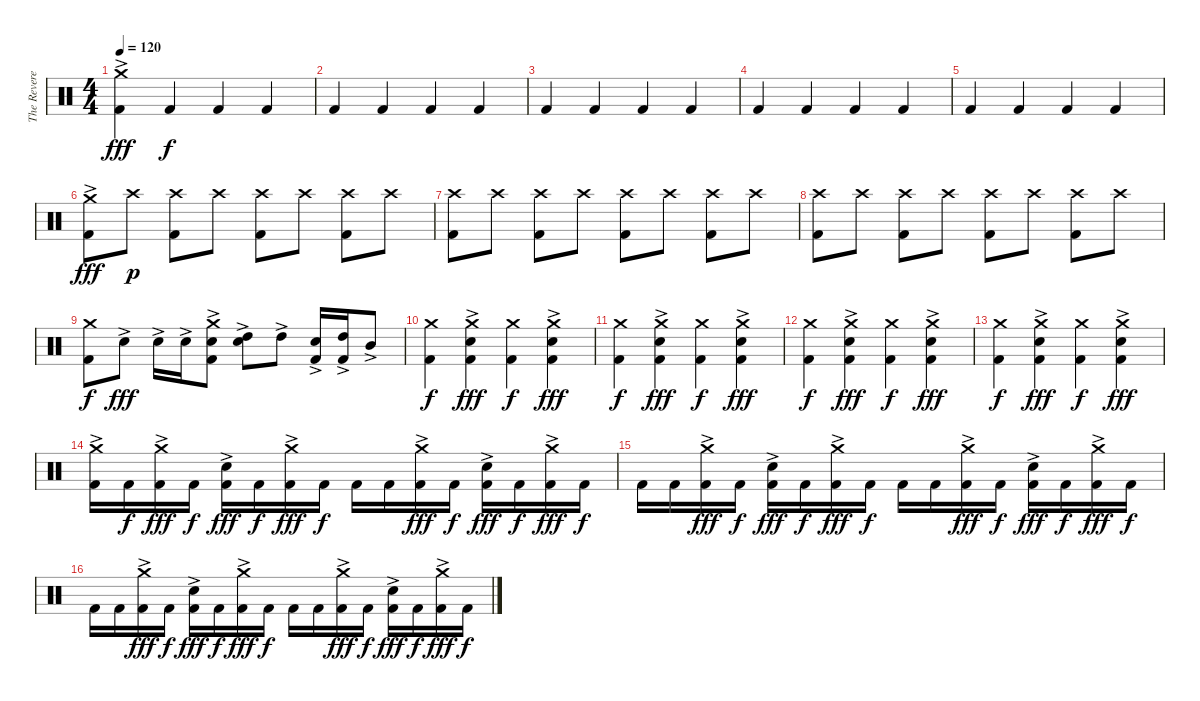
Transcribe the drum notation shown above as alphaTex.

\track ("The Reverend" "The Revere") {instrument percussion}
\staff {score}
\articulation defaults
\ts (4 4)
\tempo 120
\clef neutral
\ks c
("Crash medium (hit)"{ac} "Kick (hit) 2").4{dy fff} "Kick (hit) 2".4{dy f} "Kick (hit) 2".4 "Kick (hit) 2".4 |
"Kick (hit) 2".4 "Kick (hit) 2".4 "Kick (hit) 2".4 "Kick (hit) 2".4 |
"Kick (hit) 2".4 "Kick (hit) 2".4 "Kick (hit) 2".4 "Kick (hit) 2".4 |
"Kick (hit) 2".4 "Kick (hit) 2".4 "Kick (hit) 2".4 "Kick (hit) 2".4 |
"Kick (hit) 2".4 "Kick (hit) 2".4 "Kick (hit) 2".4 "Kick (hit) 2".4 |
("Crash medium (hit)"{ac} "Kick (hit) 2").8{dy fff} "Crash high (hit)".8{dy p} ("Crash high (hit)" "Kick (hit) 2").8 "Crash high (hit)".8 ("Crash high (hit)" "Kick (hit) 2").8 "Crash high (hit)".8 ("Crash high (hit)" "Kick (hit) 2").8 "Crash high (hit)".8 |
("Crash high (hit)" "Kick (hit) 2").8 "Crash high (hit)".8 ("Crash high (hit)" "Kick (hit) 2").8 "Crash high (hit)".8 ("Crash high (hit)" "Kick (hit) 2").8 "Crash high (hit)".8 ("Crash high (hit)" "Kick (hit) 2").8 "Crash high (hit)".8 |
("Crash high (hit)" "Kick (hit) 2").8 "Crash high (hit)".8 ("Crash high (hit)" "Kick (hit) 2").8 "Crash high (hit)".8 ("Crash high (hit)" "Kick (hit) 2").8 "Crash high (hit)".8 ("Crash high (hit)" "Kick (hit) 2").8 "Crash high (hit)".8 |
("Crash medium (hit)" "Kick (hit) 2").8{dy f} "Electric Snare (hit)"{ac}.8{dy fff} "Electric Snare (hit)"{ac}.16 "Electric Snare (hit)"{ac}.16 ("Crash medium (hit)" "Electric Snare (hit)"{ac} "Kick (hit) 2").8 ("Electric Snare (hit)"{ac} "High Tom (hit)"{ac}).8 "High Tom (hit)"{ac}.8 ("Electric Snare (hit)"{ac} "Kick (hit) 2").16 ("High Tom (hit)"{ac} "Kick (hit) 2").16 "Mid Tom (hit)"{ac}.8 |
("Crash medium (hit)" "Kick (hit) 2").4{dy f} ("Crash medium (hit)" "Electric Snare (hit)"{ac} "Kick (hit) 2").4{dy fff} ("Crash medium (hit)" "Kick (hit) 2").4{dy f} ("Crash medium (hit)" "Electric Snare (hit)"{ac} "Kick (hit) 2").4{dy fff} |
("Crash medium (hit)" "Kick (hit) 2").4{dy f} ("Crash medium (hit)" "Electric Snare (hit)"{ac} "Kick (hit) 2").4{dy fff} ("Crash medium (hit)" "Kick (hit) 2").4{dy f} ("Crash medium (hit)" "Electric Snare (hit)"{ac} "Kick (hit) 2").4{dy fff} |
("Crash medium (hit)" "Kick (hit) 2").4{dy f} ("Crash medium (hit)" "Electric Snare (hit)"{ac} "Kick (hit) 2").4{dy fff} ("Crash medium (hit)" "Kick (hit) 2").4{dy f} ("Crash medium (hit)" "Electric Snare (hit)"{ac} "Kick (hit) 2").4{dy fff} |
("Crash medium (hit)" "Kick (hit) 2").4{dy f} ("Crash medium (hit)" "Electric Snare (hit)"{ac} "Kick (hit) 2").4{dy fff} ("Crash medium (hit)" "Kick (hit) 2").4{dy f} ("Crash medium (hit)" "Electric Snare (hit)"{ac} "Kick (hit) 2").4{dy fff} |
("Crash medium (hit)"{ac} "Kick (hit) 2").16 "Kick (hit) 2".16{dy f} ("Crash medium (hit)"{ac} "Kick (hit) 2").16{dy fff} "Kick (hit) 2".16{dy f} ("Electric Snare (hit)"{ac} "Kick (hit) 2").16{dy fff} "Kick (hit) 2".16{dy f} ("Crash medium (hit)"{ac} "Kick (hit) 2").16{dy fff} "Kick (hit) 2".16{dy f} "Kick (hit) 2".16 "Kick (hit) 2".16 ("Crash medium (hit)"{ac} "Kick (hit) 2").16{dy fff} "Kick (hit) 2".16{dy f} ("Electric Snare (hit)"{ac} "Kick (hit) 2").16{dy fff} "Kick (hit) 2".16{dy f} ("Crash medium (hit)"{ac} "Kick (hit) 2").16{dy fff} "Kick (hit) 2".16{dy f} |
"Kick (hit) 2".16 "Kick (hit) 2".16 ("Crash medium (hit)"{ac} "Kick (hit) 2").16{dy fff} "Kick (hit) 2".16{dy f} ("Electric Snare (hit)"{ac} "Kick (hit) 2").16{dy fff} "Kick (hit) 2".16{dy f} ("Crash medium (hit)"{ac} "Kick (hit) 2").16{dy fff} "Kick (hit) 2".16{dy f} "Kick (hit) 2".16 "Kick (hit) 2".16 ("Crash medium (hit)"{ac} "Kick (hit) 2").16{dy fff} "Kick (hit) 2".16{dy f} ("Electric Snare (hit)"{ac} "Kick (hit) 2").16{dy fff} "Kick (hit) 2".16{dy f} ("Crash medium (hit)"{ac} "Kick (hit) 2").16{dy fff} "Kick (hit) 2".16{dy f} |
"Kick (hit) 2".16 "Kick (hit) 2".16 ("Crash medium (hit)"{ac} "Kick (hit) 2").16{dy fff} "Kick (hit) 2".16{dy f} ("Electric Snare (hit)"{ac} "Kick (hit) 2").16{dy fff} "Kick (hit) 2".16{dy f} ("Crash medium (hit)"{ac} "Kick (hit) 2").16{dy fff} "Kick (hit) 2".16{dy f} "Kick (hit) 2".16 "Kick (hit) 2".16 ("Crash medium (hit)"{ac} "Kick (hit) 2").16{dy fff} "Kick (hit) 2".16{dy f} ("Electric Snare (hit)"{ac} "Kick (hit) 2").16{dy fff} "Kick (hit) 2".16{dy f} ("Crash medium (hit)"{ac} "Kick (hit) 2").16{dy fff} "Kick (hit) 2".16{dy f}
